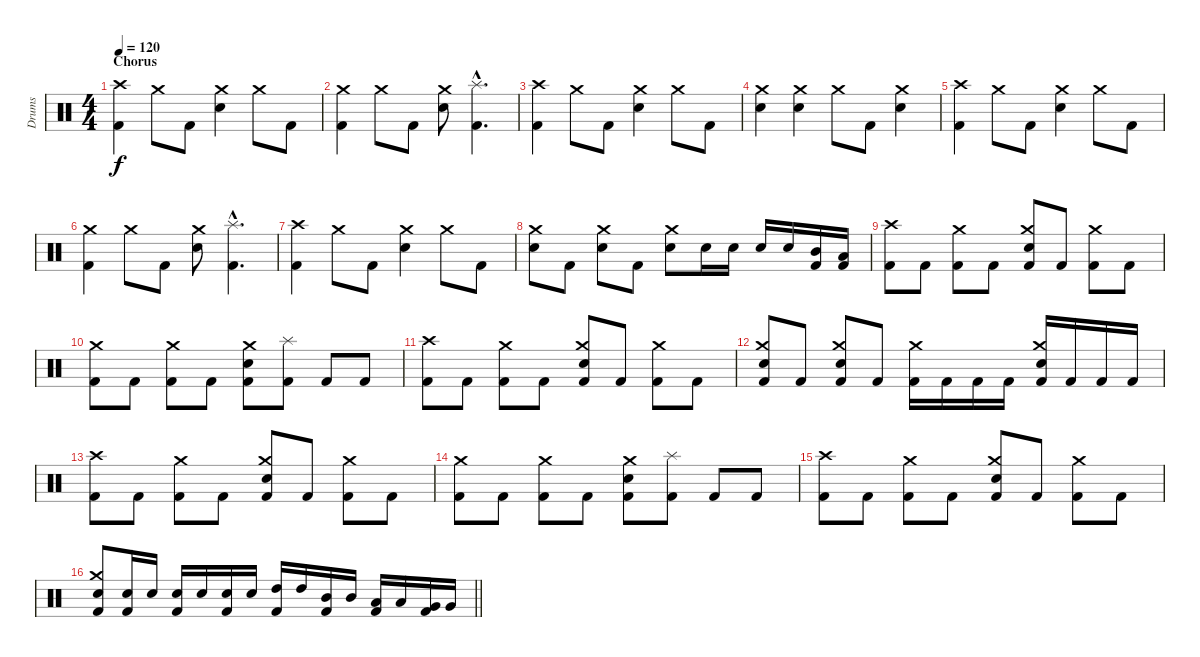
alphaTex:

\track ("Drums" "Drums") {instrument percussion}
\staff {score}
\articulation defaults
\ts (4 4)
\section ("" "Chorus")
\tempo 120
\clef neutral
\ks c
("Crash high (hit)" "Kick (hit) 2").4{dy f} "Crash medium (hit)".8 "Kick (hit) 2".8 ("Crash medium (hit)" "Electric Snare (hit)").4 "Crash medium (hit)".8 "Kick (hit) 2".8 |
("Crash medium (hit)" "Kick (hit) 2").4 "Crash medium (hit)".8 "Kick (hit) 2".8 ("Crash medium (hit)" "Electric Snare (hit)").8 ("Splash (hit)"{hac} "Kick (hit) 2"{hac}).4{d} |
("Crash high (hit)" "Kick (hit) 2").4 "Crash medium (hit)".8 "Kick (hit) 2".8 ("Crash medium (hit)" "Electric Snare (hit)").4 "Crash medium (hit)".8 "Kick (hit) 2".8 |
("Crash medium (hit)" "Electric Snare (hit)").4 ("Crash medium (hit)" "Electric Snare (hit)").4 "Crash medium (hit)".8 "Kick (hit) 2".8 ("Crash medium (hit)" "Electric Snare (hit)").4 |
("Crash high (hit)" "Kick (hit) 2").4 "Crash medium (hit)".8 "Kick (hit) 2".8 ("Crash medium (hit)" "Electric Snare (hit)").4 "Crash medium (hit)".8 "Kick (hit) 2".8 |
("Crash medium (hit)" "Kick (hit) 2").4 "Crash medium (hit)".8 "Kick (hit) 2".8 ("Crash medium (hit)" "Electric Snare (hit)").8 ("Splash (hit)"{hac} "Kick (hit) 2"{hac}).4{d} |
("Crash high (hit)" "Kick (hit) 2").4 "Crash medium (hit)".8 "Kick (hit) 2".8 ("Crash medium (hit)" "Electric Snare (hit)").4 "Crash medium (hit)".8 "Kick (hit) 2".8 |
("Crash medium (hit)" "Electric Snare (hit)").8 "Kick (hit) 2".8 ("Crash medium (hit)" "Electric Snare (hit)").8 "Kick (hit) 2".8 ("Crash medium (hit)" "Electric Snare (hit)").8 "Electric Snare (hit)".16 "Electric Snare (hit)".16 "Electric Snare (hit)".16 "Electric Snare (hit)".16 ("Mid Tom (hit)" "Kick (hit) 2").16 ("Low Tom (hit)" "Kick (hit) 2").16 |
("Crash high (hit)" "Kick (hit) 2").8 "Kick (hit) 2".8 ("Crash medium (hit)" "Kick (hit) 2").8 "Kick (hit) 2".8 ("Crash medium (hit)" "Electric Snare (hit)" "Kick (hit) 2").8 "Kick (hit) 2".8 ("Crash medium (hit)" "Kick (hit) 2").8 "Kick (hit) 2".8 |
("Crash medium (hit)" "Kick (hit) 2").8 "Kick (hit) 2".8 ("Crash medium (hit)" "Kick (hit) 2").8 "Kick (hit) 2".8 ("Crash medium (hit)" "Electric Snare (hit)" "Kick (hit) 2").8 ("Splash (hit)" "Kick (hit) 2").8 "Kick (hit) 2".8 "Kick (hit) 2".8 |
("Crash high (hit)" "Kick (hit) 2").8 "Kick (hit) 2".8 ("Crash medium (hit)" "Kick (hit) 2").8 "Kick (hit) 2".8 ("Crash medium (hit)" "Electric Snare (hit)" "Kick (hit) 2").8 "Kick (hit) 2".8 ("Crash medium (hit)" "Kick (hit) 2").8 "Kick (hit) 2".8 |
("Crash medium (hit)" "Electric Snare (hit)" "Kick (hit) 2").8 "Kick (hit) 2".8 ("Crash medium (hit)" "Electric Snare (hit)" "Kick (hit) 2").8 "Kick (hit) 2".8 ("Crash medium (hit)" "Kick (hit) 2").16 "Kick (hit) 2".16 "Kick (hit) 2".16 "Kick (hit) 2".16 ("Crash medium (hit)" "Electric Snare (hit)" "Kick (hit) 2").16 "Kick (hit) 2".16 "Kick (hit) 2".16 "Kick (hit) 2".16 |
("Crash high (hit)" "Kick (hit) 2").8 "Kick (hit) 2".8 ("Crash medium (hit)" "Kick (hit) 2").8 "Kick (hit) 2".8 ("Crash medium (hit)" "Electric Snare (hit)" "Kick (hit) 2").8 "Kick (hit) 2".8 ("Crash medium (hit)" "Kick (hit) 2").8 "Kick (hit) 2".8 |
("Crash medium (hit)" "Kick (hit) 2").8 "Kick (hit) 2".8 ("Crash medium (hit)" "Kick (hit) 2").8 "Kick (hit) 2".8 ("Crash medium (hit)" "Electric Snare (hit)" "Kick (hit) 2").8 ("Splash (hit)" "Kick (hit) 2").8 "Kick (hit) 2".8 "Kick (hit) 2".8 |
("Crash high (hit)" "Kick (hit) 2").8 "Kick (hit) 2".8 ("Crash medium (hit)" "Kick (hit) 2").8 "Kick (hit) 2".8 ("Crash medium (hit)" "Electric Snare (hit)" "Kick (hit) 2").8 "Kick (hit) 2".8 ("Crash medium (hit)" "Kick (hit) 2").8 "Kick (hit) 2".8 |
\barLineRight lightlight
("Crash medium (hit)" "Electric Snare (hit)" "Kick (hit) 2").8 ("Electric Snare (hit)" "Kick (hit) 2").16 "Electric Snare (hit)".16 ("Electric Snare (hit)" "Kick (hit) 2").16 "Electric Snare (hit)".16 ("Electric Snare (hit)" "Kick (hit) 2").16 "Electric Snare (hit)".16 ("High Tom (hit)" "Kick (hit) 2").16 "High Tom (hit)".16 ("Mid Tom (hit)" "Kick (hit) 2").16 "Mid Tom (hit)".16 ("Low Tom (hit)" "Kick (hit) 2").16 "Low Tom (hit)".16 ("Very Low Tom (hit)" "Kick (hit) 2").16 "Very Low Tom (hit)".16
